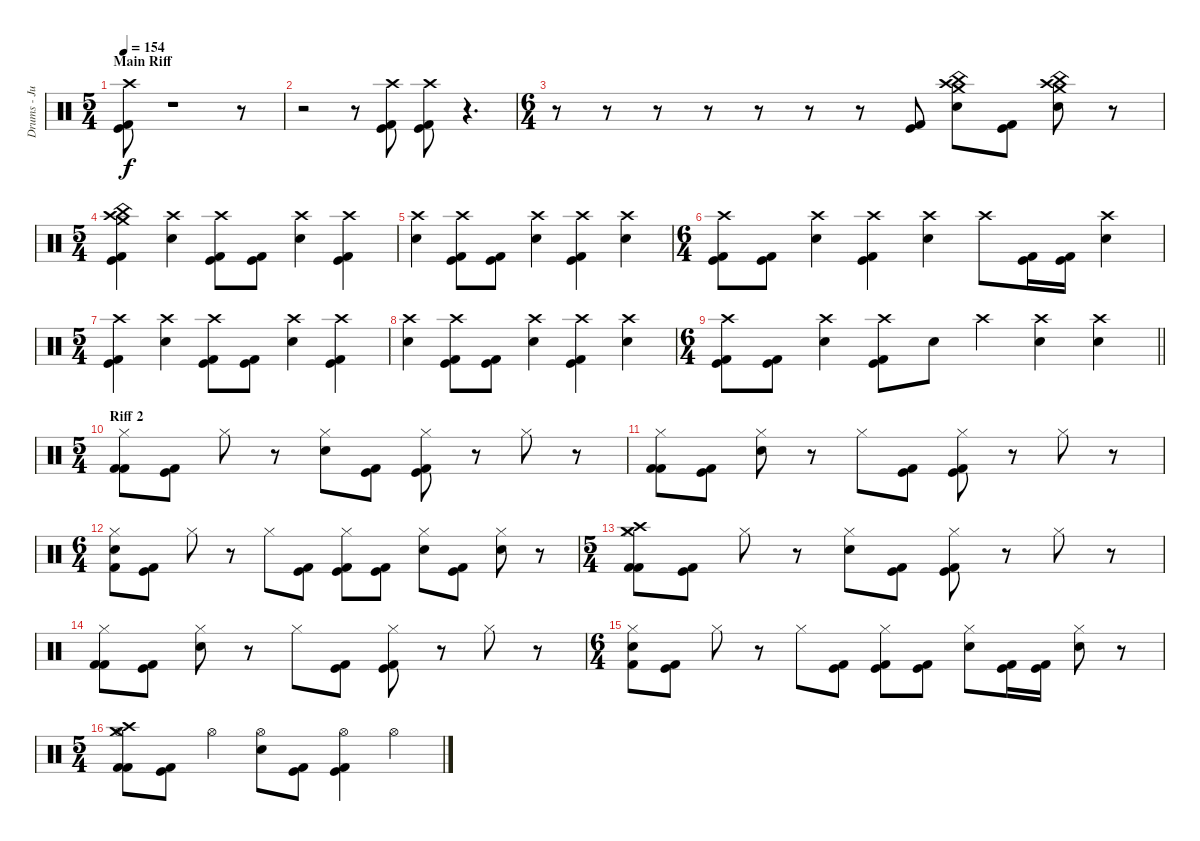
\track ("Drums - Justin Foley" "Drums - Ju") {instrument percussion}
\staff {score}
\articulation defaults
\ts (5 4)
\section ("" "Main Riff")
\tempo 154
\clef neutral
\ks c
("Crash high (hit)" "Kick (hit) 2" "Kick (hit)").8{dy f} r.1{volume 0} r.8 |
r.2{volume 13} r.8 ("Crash high (hit)" "Kick (hit) 2" "Kick (hit)").8 ("Crash high (hit)" "Kick (hit) 2" "Kick (hit)").8 r.4{d volume 0} |
\ts (6 4)
r.8{volume 0} r.8 r.8 r.8 r.8 r.8 r.8 ("Kick (hit) 2" "Kick (hit)").8{volume 13} ("Snare (hit) 2" "China (hit)" "Crash high (hit)" "Crash medium (hit)").8 ("Kick (hit) 2" "Kick (hit)").8 ("Snare (hit) 2" "China (hit)" "Crash high (hit)" "Crash medium (hit)").8 r.8 |
\ts (5 4)
("Crash high (hit)" "Kick (hit) 2" "Kick (hit)" "Crash medium (hit)" "China (hit)").4 ("Crash high (hit)" "Snare (hit) 2").4 ("Crash high (hit)" "Kick (hit) 2" "Kick (hit)").8 ("Kick (hit) 2" "Kick (hit)").8 ("Crash high (hit)" "Snare (hit) 2").4 ("Crash high (hit)" "Kick (hit) 2" "Kick (hit)").4 |
("Crash high (hit)" "Snare (hit) 2").4 ("Crash high (hit)" "Kick (hit) 2" "Kick (hit)").8 ("Kick (hit) 2" "Kick (hit)").8 ("Crash high (hit)" "Snare (hit) 2").4 ("Crash high (hit)" "Kick (hit) 2" "Kick (hit)").4 ("Crash high (hit)" "Snare (hit) 2").4 |
\ts (6 4)
("Crash high (hit)" "Kick (hit) 2" "Kick (hit)").8 ("Kick (hit) 2" "Kick (hit)").8 ("Crash high (hit)" "Snare (hit) 2").4 ("Crash high (hit)" "Kick (hit) 2" "Kick (hit)").4 ("Crash high (hit)" "Snare (hit) 2").4 "Crash high (hit)".8 ("Kick (hit) 2" "Kick (hit)").16 ("Kick (hit) 2" "Kick (hit)").16 ("Crash high (hit)" "Snare (hit) 2").4 |
\ts (5 4)
("Crash high (hit)" "Kick (hit) 2" "Kick (hit)").4 ("Crash high (hit)" "Snare (hit) 2").4 ("Crash high (hit)" "Kick (hit) 2" "Kick (hit)").8 ("Kick (hit) 2" "Kick (hit)").8 ("Crash high (hit)" "Snare (hit) 2").4 ("Crash high (hit)" "Kick (hit) 2" "Kick (hit)").4 |
("Crash high (hit)" "Snare (hit) 2").4 ("Crash high (hit)" "Kick (hit) 2" "Kick (hit)").8 ("Kick (hit) 2" "Kick (hit)").8 ("Crash high (hit)" "Snare (hit) 2").4 ("Crash high (hit)" "Kick (hit) 2" "Kick (hit)").4 ("Crash high (hit)" "Snare (hit) 2").4 |
\ts (6 4)
\barLineRight lightlight
("Crash high (hit)" "Kick (hit) 2" "Kick (hit)").8 ("Kick (hit) 2" "Kick (hit)").8 ("Crash high (hit)" "Snare (hit) 2").4 ("Crash high (hit)" "Kick (hit) 2" "Kick (hit)").8 "Snare (hit) 2".8 "Crash high (hit)".4 ("Crash high (hit)" "Snare (hit) 2").4 ("Crash high (hit)" "Snare (hit) 2").4 |
\ts (5 4)
\section ("" "Riff 2")
("Hi-Hat (closed)" "Kick (hit) 2" "Kick (hit) 2").8 ("Kick (hit) 2" "Kick (hit)").8 "Hi-Hat (closed)".8 r.8 ("Hi-Hat (closed)" "Snare (hit) 2").8 ("Kick (hit) 2" "Kick (hit)").8 ("Hi-Hat (closed)" "Kick (hit) 2" "Kick (hit)").8 r.8 "Hi-Hat (closed)".8 r.8 |
("Hi-Hat (closed)" "Kick (hit) 2" "Kick (hit) 2").8 ("Kick (hit) 2" "Kick (hit)").8 ("Hi-Hat (closed)" "Snare (hit) 2").8 r.8 "Hi-Hat (closed)".8 ("Kick (hit) 2" "Kick (hit)").8 ("Hi-Hat (closed)" "Kick (hit) 2" "Kick (hit)").8 r.8 "Hi-Hat (closed)".8 r.8 |
\ts (6 4)
("Hi-Hat (closed)" "Snare (hit) 2" "Kick (hit) 2").8 ("Kick (hit) 2" "Kick (hit)").8 "Hi-Hat (closed)".8 r.8 "Hi-Hat (closed)".8 ("Kick (hit) 2" "Kick (hit)").8 ("Hi-Hat (closed)" "Kick (hit) 2" "Kick (hit)").8 ("Kick (hit) 2" "Kick (hit)").8 ("Hi-Hat (closed)" "Snare (hit) 2").8 ("Kick (hit) 2" "Kick (hit)").8 ("Hi-Hat (closed)" "Snare (hit) 2").8 r.8 |
\ts (5 4)
("Hi-Hat (closed)" "Kick (hit) 2" "Kick (hit) 2" "Crash high (hit)" "Crash medium (hit)").8 ("Kick (hit) 2" "Kick (hit)").8 "Hi-Hat (closed)".8 r.8 ("Hi-Hat (closed)" "Snare (hit) 2").8 ("Kick (hit) 2" "Kick (hit)").8 ("Hi-Hat (closed)" "Kick (hit) 2" "Kick (hit)").8 r.8 "Hi-Hat (closed)".8 r.8 |
("Hi-Hat (closed)" "Kick (hit) 2" "Kick (hit) 2").8 ("Kick (hit) 2" "Kick (hit)").8 ("Hi-Hat (closed)" "Snare (hit) 2").8 r.8 "Hi-Hat (closed)".8 ("Kick (hit) 2" "Kick (hit)").8 ("Hi-Hat (closed)" "Kick (hit) 2" "Kick (hit)").8 r.8 "Hi-Hat (closed)".8 r.8 |
\ts (6 4)
("Hi-Hat (closed)" "Snare (hit) 2" "Kick (hit) 2").8 ("Kick (hit) 2" "Kick (hit)").8 "Hi-Hat (closed)".8 r.8 "Hi-Hat (closed)".8 ("Kick (hit) 2" "Kick (hit)").8 ("Hi-Hat (closed)" "Kick (hit) 2" "Kick (hit)").8 ("Kick (hit) 2" "Kick (hit)").8 ("Hi-Hat (closed)" "Snare (hit) 2").8 ("Kick (hit) 2" "Kick (hit)").16 ("Kick (hit) 2" "Kick (hit)").16 ("Hi-Hat (closed)" "Snare (hit) 2").8 r.8 |
\ts (5 4)
("Hi-Hat (open)" "Kick (hit) 2" "Kick (hit) 2" "Crash high (hit)" "Crash medium (hit)").8 ("Kick (hit) 2" "Kick (hit)").8 "Hi-Hat (open)".4 ("Hi-Hat (open)" "Snare (hit) 2").8 ("Kick (hit) 2" "Kick (hit)").8 ("Hi-Hat (open)" "Kick (hit) 2" "Kick (hit)").4 "Hi-Hat (open)".4
